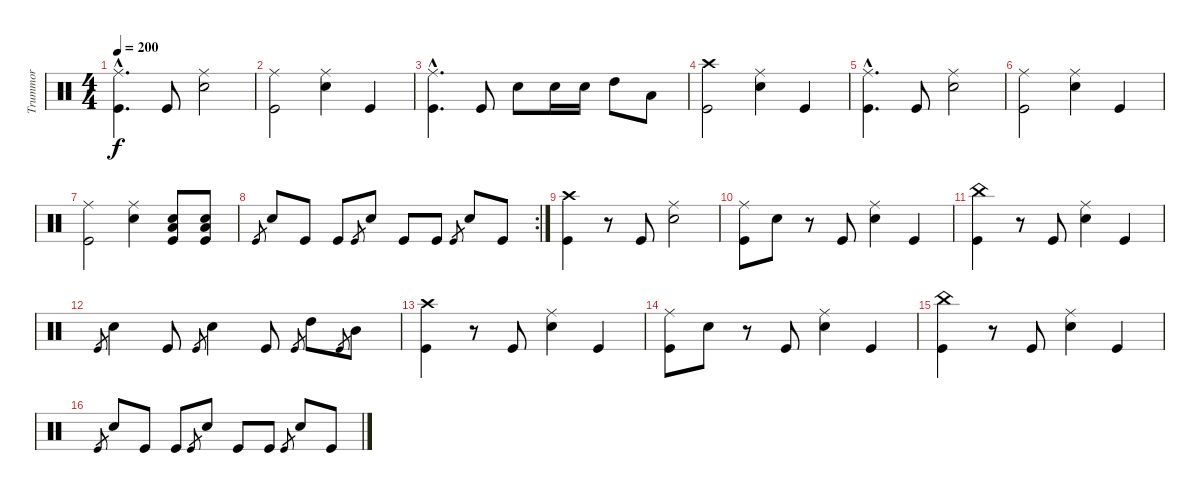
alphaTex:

\track ("Trummor" "Trummor") {instrument percussion}
\staff {score}
\articulation defaults
\ts (4 4)
\tempo 200
\clef neutral
\ks c
("Ride (middle)"{hac} "Kick (hit)"{hac}).4{d dy f} "Kick (hit)".8 ("Ride (middle)" "Electric Snare (hit)").2 |
("Ride (middle)" "Kick (hit)").2 ("Ride (middle)" "Electric Snare (hit)").4 "Kick (hit)".4 |
("Ride (middle)"{hac} "Kick (hit)"{hac}).4{d} "Kick (hit)".8 "Electric Snare (hit)".8 "Electric Snare (hit)".16 "Electric Snare (hit)".16 "High Tom (hit)".8 "Low Floor Tom (hit)".8 |
("Crash high (hit)" "Kick (hit)").2 ("Ride (middle)" "Electric Snare (hit)").4 "Kick (hit)".4 |
("Ride (middle)"{hac} "Kick (hit)"{hac}).4{d} "Kick (hit)".8 ("Ride (middle)" "Electric Snare (hit)").2 |
("Ride (middle)" "Kick (hit)").2 ("Ride (middle)" "Electric Snare (hit)").4 "Kick (hit)".4 |
("Ride (middle)" "Kick (hit)").2 ("Ride (middle)" "Electric Snare (hit)").4 ("Electric Snare (hit)" "Low Floor Tom (hit)" "Kick (hit)").8 ("Electric Snare (hit)" "Low Floor Tom (hit)" "Kick (hit)").8 |
\rc 2 "Kick (hit)"{sl}.8{gr} "Electric Snare (hit)".8 "Kick (hit)".8 "Kick (hit)".8 "Kick (hit)"{sl}.8{gr} "Electric Snare (hit)".8 "Kick (hit)".8 "Kick (hit)".8 "Kick (hit)"{sl}.8{gr} "Electric Snare (hit)".8 "Kick (hit)".8
|
("Crash high (hit)" "Kick (hit)").4 r.8 "Kick (hit)".8 ("Ride (middle)" "Electric Snare (hit)").2 |
("Ride (middle)" "Kick (hit)").8 "Electric Snare (hit)".8 r.8 "Kick (hit)".8 ("Ride (middle)" "Electric Snare (hit)").4 "Kick (hit)".4 |
("China (hit)" "Kick (hit)").4 r.8 "Kick (hit)".8 ("Ride (middle)" "Electric Snare (hit)").4 "Kick (hit)".4 |
"Kick (hit)"{sl}.8{gr} "Electric Snare (hit)".4 "Kick (hit)".8 "Kick (hit)"{sl}.8{gr} "Electric Snare (hit)".4 "Kick (hit)".8 "Kick (hit)"{sl}.8{gr} "High Tom (hit)".8 "Kick (hit)"{sl}.8{gr} "Mid Tom (hit)".8 |
("Crash high (hit)" "Kick (hit)").4 r.8 "Kick (hit)".8 ("Ride (middle)" "Electric Snare (hit)").4 "Kick (hit)".4 |
("Ride (middle)" "Kick (hit)").8 "Electric Snare (hit)".8 r.8 "Kick (hit)".8 ("Ride (middle)" "Electric Snare (hit)").4 "Kick (hit)".4 |
("China (hit)" "Kick (hit)").4 r.8 "Kick (hit)".8 ("Ride (middle)" "Electric Snare (hit)").4 "Kick (hit)".4 |
"Kick (hit)"{sl}.8{gr} "Electric Snare (hit)".8 "Kick (hit)".8 "Kick (hit)".8 "Kick (hit)"{sl}.8{gr} "Electric Snare (hit)".8 "Kick (hit)".8 "Kick (hit)".8 "Kick (hit)"{sl}.8{gr} "Electric Snare (hit)".8 "Kick (hit)".8
